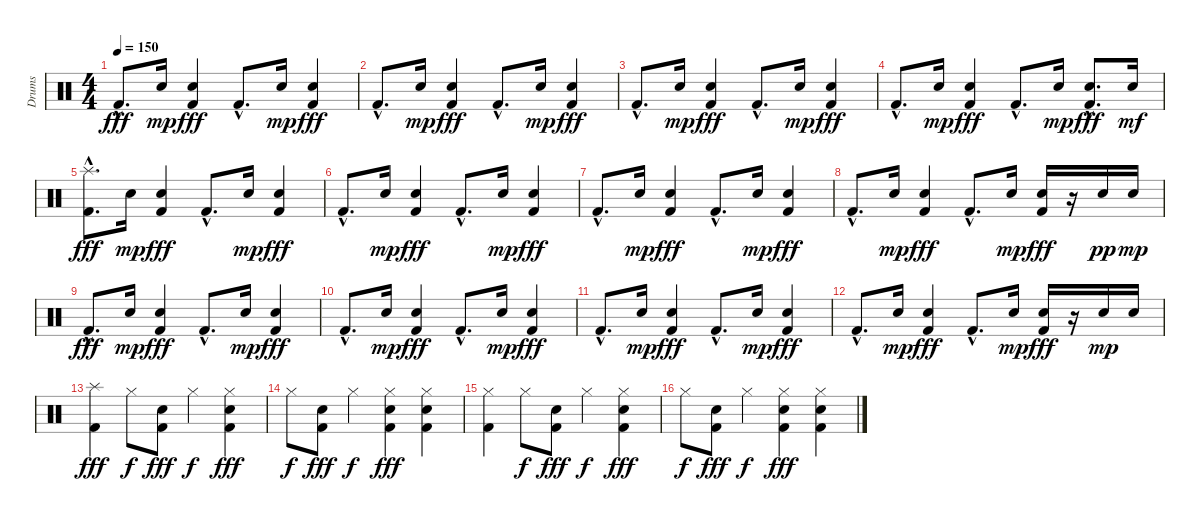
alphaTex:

\track ("Drums" "Drums") {instrument percussion}
\staff {score}
\articulation defaults
\ts (4 4)
\tempo 150
\clef neutral
\ks c "Kick (hit) 2"{hac}.8{d dy fff} "Snare (hit) 2".16{dy mp}
("Snare (hit) 2" "Kick (hit) 2").4{dy fff} "Kick (hit) 2"{hac}.8{d} "Snare (hit) 2".16{dy mp} ("Snare (hit) 2" "Kick (hit) 2").4{dy fff} |
"Kick (hit) 2"{hac}.8{d} "Snare (hit) 2".16{dy mp} ("Snare (hit) 2" "Kick (hit) 2").4{dy fff} "Kick (hit) 2"{hac}.8{d} "Snare (hit) 2".16{dy mp} ("Snare (hit) 2" "Kick (hit) 2").4{dy fff} |
"Kick (hit) 2"{hac}.8{d} "Snare (hit) 2".16{dy mp} ("Snare (hit) 2" "Kick (hit) 2").4{dy fff} "Kick (hit) 2"{hac}.8{d} "Snare (hit) 2".16{dy mp} ("Snare (hit) 2" "Kick (hit) 2").4{dy fff} |
"Kick (hit) 2"{hac}.8{d} "Snare (hit) 2".16{dy mp} ("Snare (hit) 2" "Kick (hit) 2").4{dy fff} "Kick (hit) 2"{hac}.8{d} "Snare (hit) 2".16{dy mp} ("Snare (hit) 2"{hac} "Kick (hit) 2"{hac}).8{d dy fff} "Snare (hit) 2".16{dy mf} |
("Splash (hit)"{hac} "Kick (hit) 2"{hac}).8{d dy fff} "Snare (hit) 2".16{dy mp} ("Snare (hit) 2" "Kick (hit) 2").4{dy fff} "Kick (hit) 2"{hac}.8{d} "Snare (hit) 2".16{dy mp} ("Snare (hit) 2" "Kick (hit) 2").4{dy fff} |
"Kick (hit) 2"{hac}.8{d} "Snare (hit) 2".16{dy mp} ("Snare (hit) 2" "Kick (hit) 2").4{dy fff} "Kick (hit) 2"{hac}.8{d} "Snare (hit) 2".16{dy mp} ("Snare (hit) 2" "Kick (hit) 2").4{dy fff} |
"Kick (hit) 2"{hac}.8{d} "Snare (hit) 2".16{dy mp} ("Snare (hit) 2" "Kick (hit) 2").4{dy fff} "Kick (hit) 2"{hac}.8{d} "Snare (hit) 2".16{dy mp} ("Snare (hit) 2" "Kick (hit) 2").4{dy fff} |
"Kick (hit) 2"{hac}.8{d} "Snare (hit) 2".16{dy mp} ("Snare (hit) 2" "Kick (hit) 2").4{dy fff} "Kick (hit) 2"{hac}.8{d} "Snare (hit) 2".16{dy mp} ("Snare (hit) 2" "Kick (hit) 2").16{dy fff} r.16 "Snare (hit) 2".16{dy pp} "Snare (hit) 2".16{dy mp} |
"Kick (hit) 2"{hac}.8{d dy fff} "Snare (hit) 2".16{dy mp} ("Snare (hit) 2" "Kick (hit) 2").4{dy fff} "Kick (hit) 2"{hac}.8{d} "Snare (hit) 2".16{dy mp} ("Snare (hit) 2" "Kick (hit) 2").4{dy fff} |
"Kick (hit) 2"{hac}.8{d} "Snare (hit) 2".16{dy mp} ("Snare (hit) 2" "Kick (hit) 2").4{dy fff} "Kick (hit) 2"{hac}.8{d} "Snare (hit) 2".16{dy mp} ("Snare (hit) 2" "Kick (hit) 2").4{dy fff} |
"Kick (hit) 2"{hac}.8{d} "Snare (hit) 2".16{dy mp} ("Snare (hit) 2" "Kick (hit) 2").4{dy fff} "Kick (hit) 2"{hac}.8{d} "Snare (hit) 2".16{dy mp} ("Snare (hit) 2" "Kick (hit) 2").4{dy fff} |
"Kick (hit) 2"{hac}.8{d} "Snare (hit) 2".16{dy mp} ("Snare (hit) 2" "Kick (hit) 2").4{dy fff} "Kick (hit) 2"{hac}.8{d} "Snare (hit) 2".16{dy mp} ("Snare (hit) 2" "Kick (hit) 2").16{dy fff} r.16 "Snare (hit) 2".16{dy mp} "Snare (hit) 2".16 |
("Splash (hit)" "Kick (hit) 2").4{dy fff} "Hi-Hat (closed)".8{dy f} ("Snare (hit) 2" "Kick (hit) 2").8{dy fff} "Hi-Hat (closed)".4{dy f} ("Hi-Hat (closed)" "Snare (hit) 2" "Kick (hit) 2").4{dy fff} |
"Hi-Hat (closed)".8{dy f} ("Snare (hit) 2" "Kick (hit) 2").8{dy fff} "Hi-Hat (closed)".4{dy f} ("Hi-Hat (closed)" "Snare (hit) 2" "Kick (hit) 2").4{dy fff} ("Hi-Hat (closed)" "Snare (hit) 2" "Kick (hit) 2").4 |
("Hi-Hat (closed)" "Kick (hit) 2").4 "Hi-Hat (closed)".8{dy f} ("Snare (hit) 2" "Kick (hit) 2").8{dy fff} "Hi-Hat (closed)".4{dy f} ("Hi-Hat (closed)" "Snare (hit) 2" "Kick (hit) 2").4{dy fff} |
"Hi-Hat (closed)".8{dy f} ("Snare (hit) 2" "Kick (hit) 2").8{dy fff} "Hi-Hat (closed)".4{dy f} ("Hi-Hat (closed)" "Snare (hit) 2" "Kick (hit) 2").4{dy fff} ("Hi-Hat (closed)" "Snare (hit) 2" "Kick (hit) 2").4
